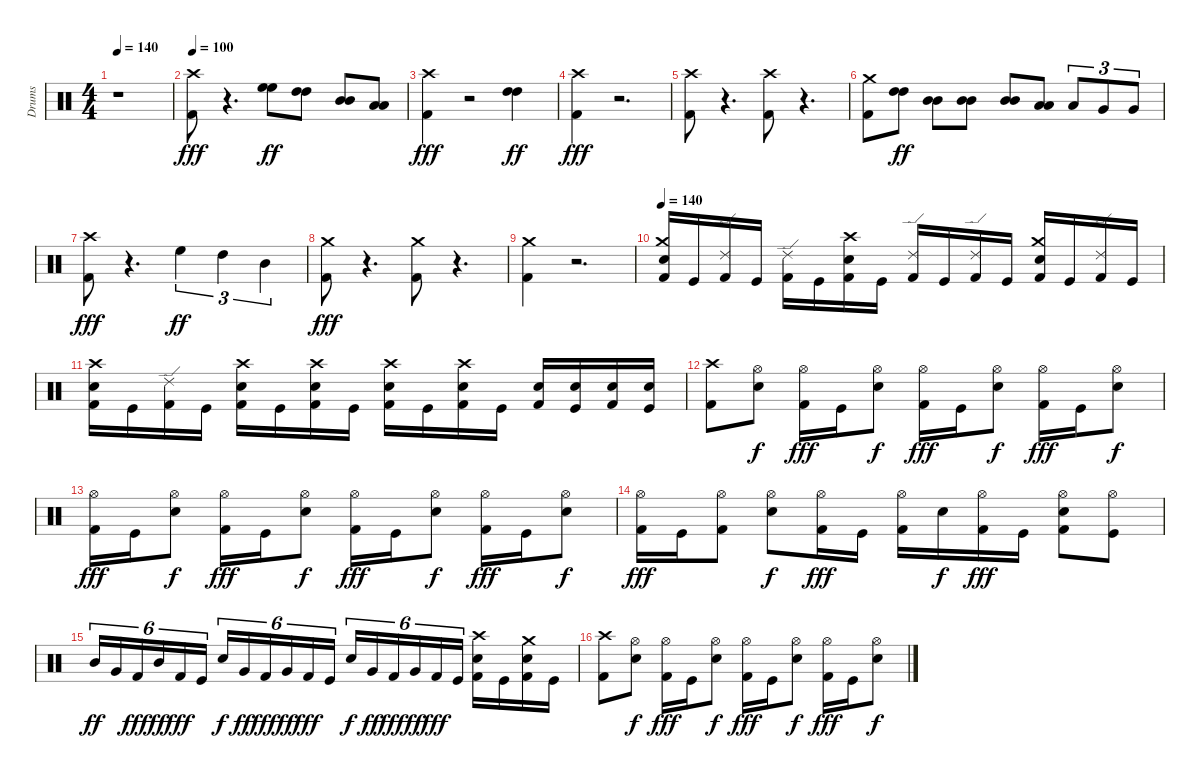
\track ("Drums" "Drums") {instrument percussion}
\staff {score}
\articulation defaults
\ts (4 4)
\tempo 140
\tempo 100
\tempo 140
\clef neutral
\ks c
r.1{dy fff} |
\tempo 100
("Crash high (hit)" "Kick (hit) 2").8 r.4{d} ("High Floor Tom (hit)" "High Floor Tom (hit)").8{dy ff} ("High Tom (hit)" "High Tom (hit)").8 ("Mid Tom (hit)" "Mid Tom (hit)").8 ("Low Tom (hit)" "Low Tom (hit)").8 |
("Crash high (hit)" "Kick (hit) 2").4{dy fff} r.2 ("High Tom (hit)" "High Tom (hit)").4{dy ff} |
("Crash high (hit)" "Kick (hit) 2").4{dy fff} r.2{d} |
("Crash high (hit)" "Kick (hit) 2").8 r.4{d} ("Crash high (hit)" "Kick (hit) 2").8 r.4{d} |
("Crash medium (hit)" "Kick (hit) 2").8 ("High Tom (hit)" "High Tom (hit)").8{dy ff} ("Mid Tom (hit)" "Mid Tom (hit)").8 ("Mid Tom (hit)" "Mid Tom (hit)").8 ("Mid Tom (hit)" "Mid Tom (hit)").8 ("Low Tom (hit)" "Low Tom (hit)").8 "Low Tom (hit)".8{tu (3 2)} "Very Low Tom (hit)".8{tu (3 2)} "Very Low Tom (hit)".8{tu (3 2)} |
("Crash high (hit)" "Kick (hit) 2").8{dy fff} r.4{d} "High Floor Tom (hit)".4{tu (3 2) dy ff} "High Tom (hit)".4{tu (3 2)} "Mid Tom (hit)".4{tu (3 2)} |
("Crash medium (hit)" "Kick (hit) 2").8{dy fff} r.4{d} ("Crash medium (hit)" "Kick (hit) 2").8 r.4{d} |
("Crash medium (hit)" "Kick (hit) 2").4 r.2{d} |
\tempo 140
("Crash medium (hit)" "Electric Snare (hit)" "Kick (hit) 2").16 "Kick (hit)".16 ("Ride (edge) 2" "Kick (hit) 2").16 "Kick (hit)".16 ("Ride (edge) 2" "Kick (hit) 2").16 "Kick (hit)".16 ("Crash high (hit)" "Electric Snare (hit)" "Kick (hit) 2").16 "Kick (hit)".16 ("Ride (edge) 2" "Kick (hit) 2").16 "Kick (hit)".16 ("Ride (edge) 2" "Kick (hit) 2").16 "Kick (hit)".16 ("Crash medium (hit)" "Electric Snare (hit)" "Kick (hit) 2").16 "Kick (hit)".16 ("Ride (edge) 2" "Kick (hit) 2").16 "Kick (hit)".16 |
("Crash high (hit)" "Electric Snare (hit)" "Kick (hit) 2").16 "Kick (hit)".16 ("Ride (edge) 2" "Kick (hit) 2").16 "Kick (hit)".16 ("Crash high (hit)" "Electric Snare (hit)" "Kick (hit) 2").16 "Kick (hit)".16 ("Crash high (hit)" "Electric Snare (hit)" "Kick (hit) 2").16 "Kick (hit)".16 ("Crash high (hit)" "Electric Snare (hit)" "Kick (hit) 2").16 "Kick (hit)".16 ("Crash high (hit)" "Electric Snare (hit)" "Kick (hit) 2").16 "Kick (hit)".16 ("Electric Snare (hit)" "Kick (hit) 2").16 ("Electric Snare (hit)" "Kick (hit)").16 ("Electric Snare (hit)" "Kick (hit) 2").16 ("Electric Snare (hit)" "Kick (hit)").16 |
("Crash high (hit)" "Kick (hit) 2").8 ("Hi-Hat (open)" "Electric Snare (hit)").8{dy f} ("Hi-Hat (open)" "Kick (hit) 2").16{dy fff} "Kick (hit)".16 ("Hi-Hat (open)" "Electric Snare (hit)").8{dy f} ("Hi-Hat (open)" "Kick (hit) 2").16{dy fff} "Kick (hit)".16 ("Hi-Hat (open)" "Electric Snare (hit)").8{dy f} ("Hi-Hat (open)" "Kick (hit) 2").16{dy fff} "Kick (hit)".16 ("Hi-Hat (open)" "Electric Snare (hit)").8{dy f} |
("Hi-Hat (open)" "Kick (hit) 2").16{dy fff} "Kick (hit)".16 ("Hi-Hat (open)" "Electric Snare (hit)").8{dy f} ("Hi-Hat (open)" "Kick (hit) 2").16{dy fff} "Kick (hit)".16 ("Hi-Hat (open)" "Electric Snare (hit)").8{dy f} ("Hi-Hat (open)" "Kick (hit) 2").16{dy fff} "Kick (hit)".16 ("Hi-Hat (open)" "Electric Snare (hit)").8{dy f} ("Hi-Hat (open)" "Kick (hit) 2").16{dy fff} "Kick (hit)".16 ("Hi-Hat (open)" "Electric Snare (hit)").8{dy f} |
("Hi-Hat (open)" "Kick (hit) 2").16{dy fff} "Kick (hit)".16 ("Hi-Hat (open)" "Kick (hit) 2").8 ("Hi-Hat (open)" "Electric Snare (hit)").8{dy f} ("Hi-Hat (open)" "Kick (hit) 2").16{dy fff} "Kick (hit)".16 ("Hi-Hat (open)" "Kick (hit) 2").16 "Electric Snare (hit)".16{dy f} ("Hi-Hat (open)" "Kick (hit) 2").16{dy fff} "Kick (hit)".16 ("Hi-Hat (open)" "Electric Snare (hit)" "Kick (hit) 2").8 ("Hi-Hat (open)" "Kick (hit)").8 |
"Mid Tom (hit)".16{tu (6 4) dy ff} "Very Low Tom (hit)".16{tu (6 4)} "Kick (hit) 2".16{tu (6 4) dy fff} "Mid Tom (hit)".16{tu (6 4) dy ff} "Kick (hit) 2".16{tu (6 4) dy fff} "Kick (hit)".16{tu (6 4)} "Electric Snare (hit)".16{tu (6 4) dy f} "Very Low Tom (hit)".16{tu (6 4) dy ff} "Kick (hit) 2".16{tu (6 4) dy fff} "Very Low Tom (hit)".16{tu (6 4) dy ff} "Kick (hit) 2".16{tu (6 4) dy fff} "Kick (hit)".16{tu (6 4)} "Electric Snare (hit)".16{tu (6 4) dy f} "Very Low Tom (hit)".16{tu (6 4) dy ff} "Kick (hit) 2".16{tu (6 4) dy fff} "Very Low Tom (hit)".16{tu (6 4) dy ff} "Kick (hit) 2".16{tu (6 4) dy fff} "Kick (hit)".16{tu (6 4)} ("Crash high (hit)" "Electric Snare (hit)" "Kick (hit) 2").16 "Kick (hit)".16 ("Crash medium (hit)" "Electric Snare (hit)" "Kick (hit) 2").16 "Kick (hit)".16 |
("Crash high (hit)" "Kick (hit) 2").8 ("Hi-Hat (open)" "Electric Snare (hit)").8{dy f} ("Hi-Hat (open)" "Kick (hit) 2").16{dy fff} "Kick (hit)".16 ("Hi-Hat (open)" "Electric Snare (hit)").8{dy f} ("Hi-Hat (open)" "Kick (hit) 2").16{dy fff} "Kick (hit)".16 ("Hi-Hat (open)" "Electric Snare (hit)").8{dy f} ("Hi-Hat (open)" "Kick (hit) 2").16{dy fff} "Kick (hit)".16 ("Hi-Hat (open)" "Electric Snare (hit)").8{dy f}
